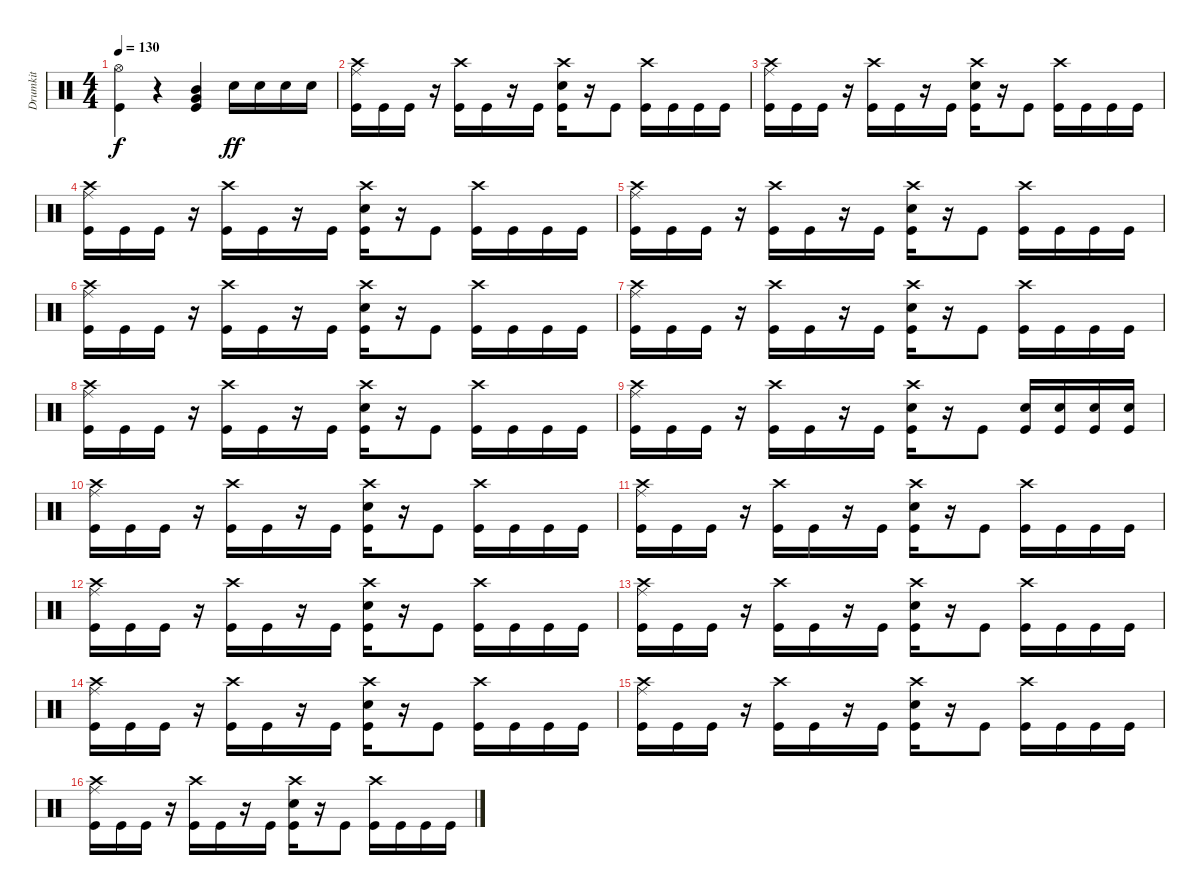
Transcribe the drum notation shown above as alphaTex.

\track ("Drumkit" "Drumkit") {instrument percussion}
\staff {score}
\articulation defaults
\ts (4 4)
\tempo 130
\clef neutral
\ks c
("Kick (hit)" "Hi-Hat (open)").4{dy f} r.4 ("Kick (hit)" "Very Low Tom (hit)" "Mid Tom (hit)").4 "Snare (hit) 2".16{dy ff} "Snare (hit) 2".16 "Snare (hit) 2".16 "Snare (hit) 2".16 |
("Kick (hit)" "Crash high (hit)" "Ride (middle)").16 "Kick (hit)".16 "Kick (hit)".16 r.16 ("Kick (hit)" "Crash high (hit)").16 "Kick (hit)".16 r.16 "Kick (hit)".16 ("Kick (hit)" "Crash high (hit)" "Snare (hit) 2").16 r.16 "Kick (hit)".8 ("Kick (hit)" "Crash high (hit)").16 "Kick (hit)".16 "Kick (hit)".16 "Kick (hit)".16 |
("Kick (hit)" "Crash high (hit)" "Ride (middle)").16 "Kick (hit)".16 "Kick (hit)".16 r.16 ("Kick (hit)" "Crash high (hit)").16 "Kick (hit)".16 r.16 "Kick (hit)".16 ("Kick (hit)" "Crash high (hit)" "Snare (hit) 2").16 r.16 "Kick (hit)".8 ("Kick (hit)" "Crash high (hit)").16 "Kick (hit)".16 "Kick (hit)".16 "Kick (hit)".16 |
("Kick (hit)" "Crash high (hit)" "Ride (middle)").16 "Kick (hit)".16 "Kick (hit)".16 r.16 ("Kick (hit)" "Crash high (hit)").16 "Kick (hit)".16 r.16 "Kick (hit)".16 ("Kick (hit)" "Crash high (hit)" "Snare (hit) 2").16 r.16 "Kick (hit)".8 ("Kick (hit)" "Crash high (hit)").16 "Kick (hit)".16 "Kick (hit)".16 "Kick (hit)".16 |
("Kick (hit)" "Crash high (hit)" "Ride (middle)").16 "Kick (hit)".16 "Kick (hit)".16 r.16 ("Kick (hit)" "Crash high (hit)").16 "Kick (hit)".16 r.16 "Kick (hit)".16 ("Kick (hit)" "Crash high (hit)" "Snare (hit) 2").16 r.16 "Kick (hit)".8 ("Kick (hit)" "Crash high (hit)").16 "Kick (hit)".16 "Kick (hit)".16 "Kick (hit)".16 |
("Kick (hit)" "Crash high (hit)" "Ride (middle)").16 "Kick (hit)".16 "Kick (hit)".16 r.16 ("Kick (hit)" "Crash high (hit)").16 "Kick (hit)".16 r.16 "Kick (hit)".16 ("Kick (hit)" "Crash high (hit)" "Snare (hit) 2").16 r.16 "Kick (hit)".8 ("Kick (hit)" "Crash high (hit)").16 "Kick (hit)".16 "Kick (hit)".16 "Kick (hit)".16 |
("Kick (hit)" "Crash high (hit)" "Ride (middle)").16 "Kick (hit)".16 "Kick (hit)".16 r.16 ("Kick (hit)" "Crash high (hit)").16 "Kick (hit)".16 r.16 "Kick (hit)".16 ("Kick (hit)" "Crash high (hit)" "Snare (hit) 2").16 r.16 "Kick (hit)".8 ("Kick (hit)" "Crash high (hit)").16 "Kick (hit)".16 "Kick (hit)".16 "Kick (hit)".16 |
("Kick (hit)" "Crash high (hit)" "Ride (middle)").16 "Kick (hit)".16 "Kick (hit)".16 r.16 ("Kick (hit)" "Crash high (hit)").16 "Kick (hit)".16 r.16 "Kick (hit)".16 ("Kick (hit)" "Crash high (hit)" "Snare (hit) 2").16 r.16 "Kick (hit)".8 ("Kick (hit)" "Crash high (hit)").16 "Kick (hit)".16 "Kick (hit)".16 "Kick (hit)".16 |
("Kick (hit)" "Crash high (hit)" "Ride (middle)").16 "Kick (hit)".16 "Kick (hit)".16 r.16 ("Kick (hit)" "Crash high (hit)").16 "Kick (hit)".16 r.16 "Kick (hit)".16 ("Kick (hit)" "Crash high (hit)" "Snare (hit) 2").16 r.16 "Kick (hit)".8 ("Kick (hit)" "Snare (hit) 2").16 ("Kick (hit)" "Snare (hit) 2").16 ("Kick (hit)" "Snare (hit) 2").16 ("Kick (hit)" "Snare (hit) 2").16 |
("Kick (hit)" "Crash high (hit)" "Ride (middle)").16 "Kick (hit)".16 "Kick (hit)".16 r.16 ("Kick (hit)" "Crash high (hit)").16 "Kick (hit)".16 r.16 "Kick (hit)".16 ("Kick (hit)" "Crash high (hit)" "Snare (hit) 2").16 r.16 "Kick (hit)".8 ("Kick (hit)" "Crash high (hit)").16 "Kick (hit)".16 "Kick (hit)".16 "Kick (hit)".16 |
("Kick (hit)" "Crash high (hit)" "Ride (middle)").16 "Kick (hit)".16 "Kick (hit)".16 r.16 ("Kick (hit)" "Crash high (hit)").16 "Kick (hit)".16 r.16 "Kick (hit)".16 ("Kick (hit)" "Crash high (hit)" "Snare (hit) 2").16 r.16 "Kick (hit)".8 ("Kick (hit)" "Crash high (hit)").16 "Kick (hit)".16 "Kick (hit)".16 "Kick (hit)".16 |
("Kick (hit)" "Crash high (hit)" "Ride (middle)").16 "Kick (hit)".16 "Kick (hit)".16 r.16 ("Kick (hit)" "Crash high (hit)").16 "Kick (hit)".16 r.16 "Kick (hit)".16 ("Kick (hit)" "Crash high (hit)" "Snare (hit) 2").16 r.16 "Kick (hit)".8 ("Kick (hit)" "Crash high (hit)").16 "Kick (hit)".16 "Kick (hit)".16 "Kick (hit)".16 |
("Kick (hit)" "Crash high (hit)" "Ride (middle)").16 "Kick (hit)".16 "Kick (hit)".16 r.16 ("Kick (hit)" "Crash high (hit)").16 "Kick (hit)".16 r.16 "Kick (hit)".16 ("Kick (hit)" "Crash high (hit)" "Snare (hit) 2").16 r.16 "Kick (hit)".8 ("Kick (hit)" "Crash high (hit)").16 "Kick (hit)".16 "Kick (hit)".16 "Kick (hit)".16 |
("Kick (hit)" "Crash high (hit)" "Ride (middle)").16 "Kick (hit)".16 "Kick (hit)".16 r.16 ("Kick (hit)" "Crash high (hit)").16 "Kick (hit)".16 r.16 "Kick (hit)".16 ("Kick (hit)" "Crash high (hit)" "Snare (hit) 2").16 r.16 "Kick (hit)".8 ("Kick (hit)" "Crash high (hit)").16 "Kick (hit)".16 "Kick (hit)".16 "Kick (hit)".16 |
("Kick (hit)" "Crash high (hit)" "Ride (middle)").16 "Kick (hit)".16 "Kick (hit)".16 r.16 ("Kick (hit)" "Crash high (hit)").16 "Kick (hit)".16 r.16 "Kick (hit)".16 ("Kick (hit)" "Crash high (hit)" "Snare (hit) 2").16 r.16 "Kick (hit)".8 ("Kick (hit)" "Crash high (hit)").16 "Kick (hit)".16 "Kick (hit)".16 "Kick (hit)".16 |
("Kick (hit)" "Crash high (hit)" "Ride (middle)").16 "Kick (hit)".16 "Kick (hit)".16 r.16 ("Kick (hit)" "Crash high (hit)").16 "Kick (hit)".16 r.16 "Kick (hit)".16 ("Kick (hit)" "Crash high (hit)" "Snare (hit) 2").16 r.16 "Kick (hit)".8 ("Kick (hit)" "Crash high (hit)").16 "Kick (hit)".16 "Kick (hit)".16 "Kick (hit)".16
